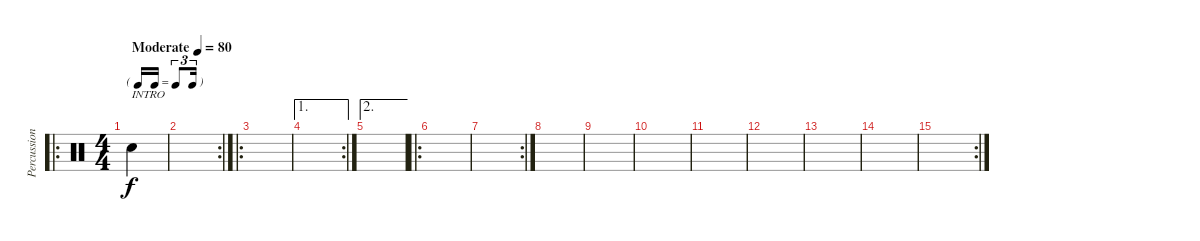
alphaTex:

\track ("Percussion" "Percussion") {instrument percussion bank 38}
\staff {score}
\articulation defaults
\ro
\ts (4 4)
\tf triplet16th
\tempo (80 "Moderate")
\clef neutral
\ks c "Snare (hit)".4{txt "INTRO" dy f}
|
\rc 2
|
\ro
|
\ae 1
\rc 2
|
\ae 2
|
\ro
|
\rc 2
|
|
|
|
|
|
|
|
\rc 2
